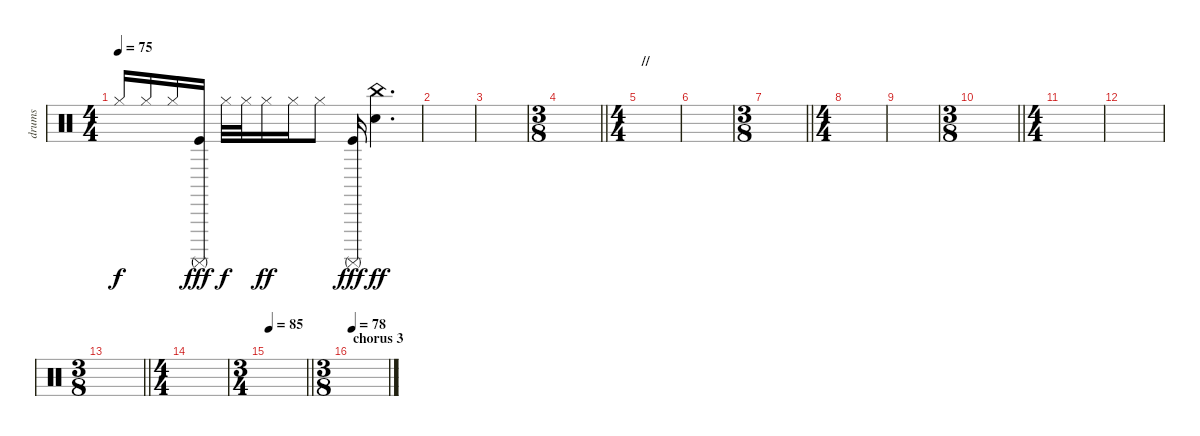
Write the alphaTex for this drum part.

\track ("drums" "drums") {instrument percussion}
\staff {score}
\articulation defaults
\ts (4 4)
\tempo 75
\clef neutral
\ks c "Hi-Hat (closed)".16{dy f} "Hi-Hat (closed)".16 "Hi-Hat (closed)".16
("Kick (hit)" "Surdo (mute)").16{dy fff} "Hi-Hat (closed)".32{dy f} "Hi-Hat (closed)".32 "Hi-Hat (closed)".16{dy ff} "Hi-Hat (closed)".16 "Hi-Hat (closed)".8 ("Kick (hit)" "Surdo (mute)").16{dy fff} ("China (hit)" "Snare (hit) 2").4{d dy ff} |
|
|
\ts (3 8)
\barLineRight lightlight
|
\ts (4 4)
\section ("" "//")
|
|
\ts (3 8)
\barLineRight lightlight
|
\ts (4 4)
|
|
\ts (3 8)
\barLineRight lightlight
|
\ts (4 4)
|
|
\ts (3 8)
\barLineRight lightlight
|
\ts (4 4)
|
\ts (3 4)
\tempo 85
\barLineRight lightlight
|
\ts (3 8)
\section ("" "chorus 3")
\tempo 78
